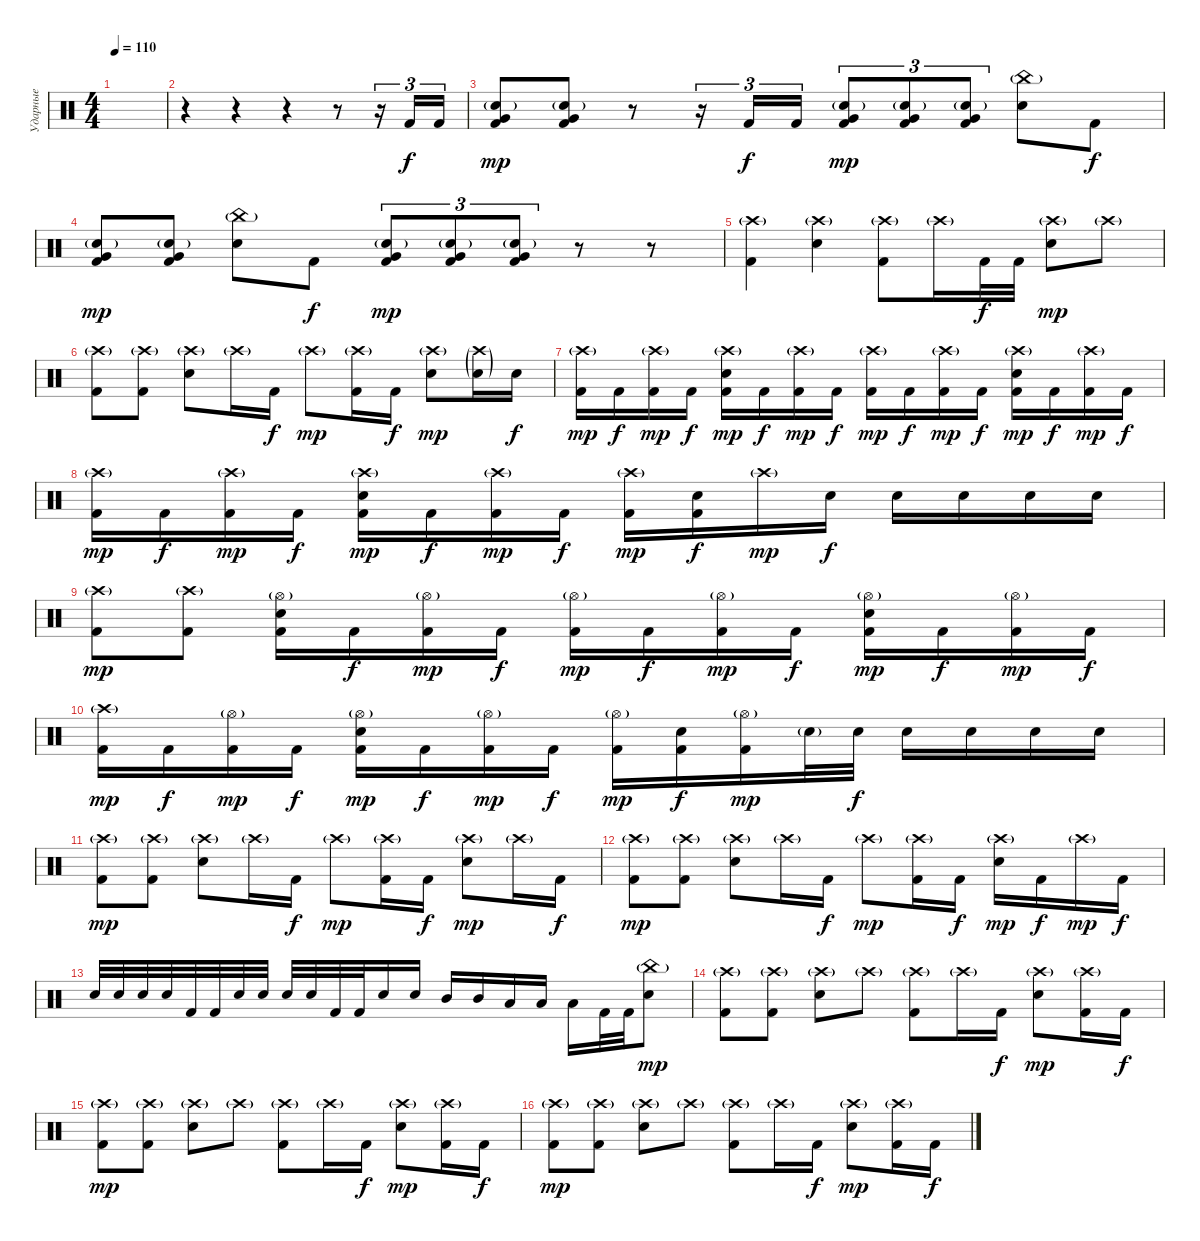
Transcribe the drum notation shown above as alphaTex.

\track ("Ударные" "Ударные") {instrument percussion}
\staff {score}
\articulation defaults
\ts (4 4)
\tempo 110
\clef neutral
\ks c
|
r.4 r.4 r.4 r.8 r.16{tu (3 2)} "Kick (hit) 2".16{tu (3 2)} "Kick (hit) 2".16{tu (3 2)} |
("Very Low Tom (hit)" "Electric Snare (hit)"{g} "Kick (hit) 2").8{dy mp} ("Very Low Tom (hit)" "Electric Snare (hit)"{g} "Kick (hit) 2").8 r.8 r.16{tu (3 2)} "Kick (hit) 2".16{tu (3 2) dy f} "Kick (hit) 2".16{tu (3 2)} ("Very Low Tom (hit)" "Electric Snare (hit)"{g} "Kick (hit) 2").8{tu (3 2) dy mp} ("Very Low Tom (hit)" "Electric Snare (hit)"{g} "Kick (hit) 2").8{tu (3 2)} ("Very Low Tom (hit)" "Electric Snare (hit)"{g} "Kick (hit) 2").8{tu (3 2)} ("China (hit)"{g} "Electric Snare (hit)").8 "Kick (hit) 2".8{dy f} |
("Very Low Tom (hit)" "Electric Snare (hit)"{g} "Kick (hit) 2").8{dy mp} ("Very Low Tom (hit)" "Electric Snare (hit)"{g} "Kick (hit) 2").8 ("China (hit)"{g} "Electric Snare (hit)").8 "Kick (hit) 2".8{dy f} ("Very Low Tom (hit)" "Electric Snare (hit)"{g} "Kick (hit) 2").8{tu (3 2) dy mp} ("Very Low Tom (hit)" "Electric Snare (hit)"{g} "Kick (hit) 2").8{tu (3 2)} ("Very Low Tom (hit)" "Electric Snare (hit)"{g} "Kick (hit) 2").8{tu (3 2)} r.8 r.8 |
("Crash high (hit)"{g} "Kick (hit) 2").4 ("Crash high (hit)"{g} "Electric Snare (hit)").4 ("Crash high (hit)"{g} "Kick (hit) 2").8 "Crash high (hit)"{g}.16 "Kick (hit) 2".32{dy f} "Kick (hit) 2".32 ("Crash high (hit)"{g} "Electric Snare (hit)").8{dy mp} "Crash high (hit)"{g}.8 |
("Crash high (hit)"{g} "Kick (hit) 2").8 ("Crash high (hit)"{g} "Kick (hit) 2").8 ("Crash high (hit)"{g} "Electric Snare (hit)").8 "Crash high (hit)"{g}.16 "Kick (hit) 2".16{dy f} "Crash high (hit)"{g}.8{dy mp} ("Crash high (hit)"{g} "Kick (hit) 2").16 "Kick (hit) 2".16{dy f} ("Crash high (hit)"{g} "Electric Snare (hit)").8{dy mp} ("Crash high (hit)"{g} "Electric Snare (hit)"{g}).16 "Electric Snare (hit)".16{dy f} |
("Crash high (hit)"{g} "Kick (hit) 2").16{dy mp} "Kick (hit) 2".16{dy f} ("Crash high (hit)"{g} "Kick (hit) 2").16{dy mp} "Kick (hit) 2".16{dy f} ("Crash high (hit)"{g} "Electric Snare (hit)" "Kick (hit) 2").16{dy mp} "Kick (hit) 2".16{dy f} ("Crash high (hit)"{g} "Kick (hit) 2").16{dy mp} "Kick (hit) 2".16{dy f} ("Crash high (hit)"{g} "Kick (hit) 2").16{dy mp} "Kick (hit) 2".16{dy f} ("Crash high (hit)"{g} "Kick (hit) 2").16{dy mp} "Kick (hit) 2".16{dy f} ("Crash high (hit)"{g} "Electric Snare (hit)" "Kick (hit) 2").16{dy mp} "Kick (hit) 2".16{dy f} ("Crash high (hit)"{g} "Kick (hit) 2").16{dy mp} "Kick (hit) 2".16{dy f} |
("Crash high (hit)"{g} "Kick (hit) 2").16{dy mp} "Kick (hit) 2".16{dy f} ("Crash high (hit)"{g} "Kick (hit) 2").16{dy mp} "Kick (hit) 2".16{dy f} ("Crash high (hit)"{g} "Electric Snare (hit)" "Kick (hit) 2").16{dy mp} "Kick (hit) 2".16{dy f} ("Crash high (hit)"{g} "Kick (hit) 2").16{dy mp} "Kick (hit) 2".16{dy f} ("Crash high (hit)"{g} "Kick (hit) 2").16{dy mp} ("Electric Snare (hit)" "Kick (hit) 2").16{dy f} "Crash high (hit)"{g}.16{dy mp} "Electric Snare (hit)".16{dy f} "Electric Snare (hit)".16 "Electric Snare (hit)".16 "Electric Snare (hit)".16 "Electric Snare (hit)".16 |
("Crash high (hit)"{g} "Kick (hit) 2").8{dy mp} ("Crash high (hit)"{g} "Kick (hit) 2").8 ("Hi-Hat (open)"{g} "Electric Snare (hit)" "Kick (hit) 2").16 "Kick (hit) 2".16{dy f} ("Hi-Hat (open)"{g} "Kick (hit) 2").16{dy mp} "Kick (hit) 2".16{dy f} ("Hi-Hat (open)"{g} "Kick (hit) 2").16{dy mp} "Kick (hit) 2".16{dy f} ("Hi-Hat (open)"{g} "Kick (hit) 2").16{dy mp} "Kick (hit) 2".16{dy f} ("Hi-Hat (open)"{g} "Electric Snare (hit)" "Kick (hit) 2").16{dy mp} "Kick (hit) 2".16{dy f} ("Hi-Hat (open)"{g} "Kick (hit) 2").16{dy mp} "Kick (hit) 2".16{dy f} |
("Crash high (hit)"{g} "Kick (hit) 2").16{dy mp} "Kick (hit) 2".16{dy f} ("Hi-Hat (open)"{g} "Kick (hit) 2").16{dy mp} "Kick (hit) 2".16{dy f} ("Hi-Hat (open)"{g} "Electric Snare (hit)" "Kick (hit) 2").16{dy mp} "Kick (hit) 2".16{dy f} ("Hi-Hat (open)"{g} "Kick (hit) 2").16{dy mp} "Kick (hit) 2".16{dy f} ("Hi-Hat (open)"{g} "Kick (hit) 2").16{dy mp} ("Electric Snare (hit)" "Kick (hit) 2").16{dy f} ("Hi-Hat (open)"{g} "Kick (hit) 2").16{dy mp} "Electric Snare (hit)"{g}.32 "Electric Snare (hit)".32{dy f} "Electric Snare (hit)".16 "Electric Snare (hit)".16 "Electric Snare (hit)".16 "Electric Snare (hit)".16 |
("Crash high (hit)"{g} "Kick (hit) 2").8{dy mp} ("Crash high (hit)"{g} "Kick (hit) 2").8 ("Crash high (hit)"{g} "Electric Snare (hit)").8 "Crash high (hit)"{g}.16 "Kick (hit) 2".16{dy f} "Crash high (hit)"{g}.8{dy mp} ("Crash high (hit)"{g} "Kick (hit) 2").16 "Kick (hit) 2".16{dy f} ("Crash high (hit)"{g} "Electric Snare (hit)").8{dy mp} "Crash high (hit)"{g}.16 "Kick (hit) 2".16{dy f} |
("Crash high (hit)"{g} "Kick (hit) 2").8{dy mp} ("Crash high (hit)"{g} "Kick (hit) 2").8 ("Crash high (hit)"{g} "Electric Snare (hit)").8 "Crash high (hit)"{g}.16 "Kick (hit) 2".16{dy f} "Crash high (hit)"{g}.8{dy mp} ("Crash high (hit)"{g} "Kick (hit) 2").16 "Kick (hit) 2".16{dy f} ("Crash high (hit)"{g} "Electric Snare (hit)").16{dy mp} "Kick (hit) 2".16{dy f} "Crash high (hit)"{g}.16{dy mp} "Kick (hit) 2".16{dy f} |
"Electric Snare (hit)".32 "Electric Snare (hit)".32 "Electric Snare (hit)".32 "Electric Snare (hit)".32 "Kick (hit) 2".32 "Kick (hit) 2".32 "Electric Snare (hit)".32 "Electric Snare (hit)".32 "Electric Snare (hit)".32 "Electric Snare (hit)".32 "Kick (hit) 2".32 "Kick (hit) 2".32 "Electric Snare (hit)".16 "Electric Snare (hit)".16 "Mid Tom (hit)".16 "Mid Tom (hit)".16 "Low Tom (hit)".16 "Low Tom (hit)".16 "Low Tom (hit)".16 "Kick (hit) 2".32 "Kick (hit) 2".32 ("China (hit)"{g} "Electric Snare (hit)").8{dy mp} |
("Crash high (hit)"{g} "Kick (hit) 2").8 ("Crash high (hit)"{g} "Kick (hit) 2").8 ("Crash high (hit)"{g} "Electric Snare (hit)").8 "Crash high (hit)"{g}.8 ("Crash high (hit)"{g} "Kick (hit) 2").8 "Crash high (hit)"{g}.16 "Kick (hit) 2".16{dy f} ("Crash high (hit)"{g} "Electric Snare (hit)").8{dy mp} ("Crash high (hit)"{g} "Kick (hit) 2").16 "Kick (hit) 2".16{dy f} |
("Crash high (hit)"{g} "Kick (hit) 2").8{dy mp} ("Crash high (hit)"{g} "Kick (hit) 2").8 ("Crash high (hit)"{g} "Electric Snare (hit)").8 "Crash high (hit)"{g}.8 ("Crash high (hit)"{g} "Kick (hit) 2").8 "Crash high (hit)"{g}.16 "Kick (hit) 2".16{dy f} ("Crash high (hit)"{g} "Electric Snare (hit)").8{dy mp} ("Crash high (hit)"{g} "Kick (hit) 2").16 "Kick (hit) 2".16{dy f} |
("Crash high (hit)"{g} "Kick (hit) 2").8{dy mp} ("Crash high (hit)"{g} "Kick (hit) 2").8 ("Crash high (hit)"{g} "Electric Snare (hit)").8 "Crash high (hit)"{g}.8 ("Crash high (hit)"{g} "Kick (hit) 2").8 "Crash high (hit)"{g}.16 "Kick (hit) 2".16{dy f} ("Crash high (hit)"{g} "Electric Snare (hit)").8{dy mp} ("Crash high (hit)"{g} "Kick (hit) 2").16 "Kick (hit) 2".16{dy f}
